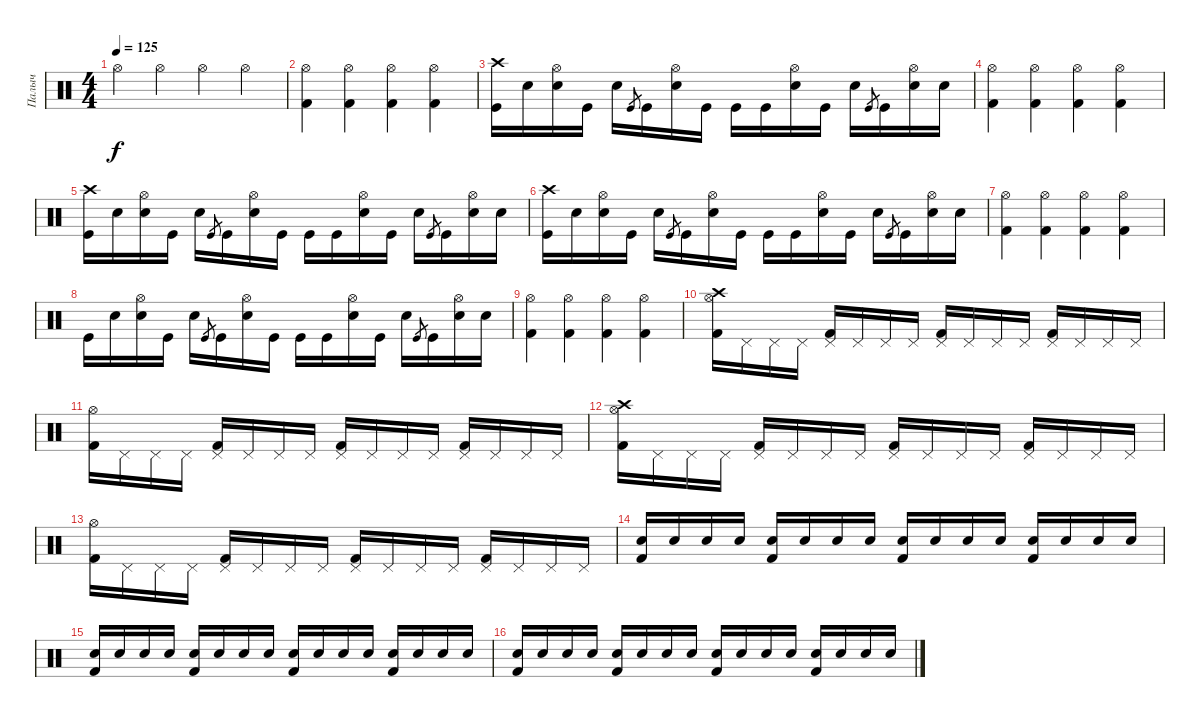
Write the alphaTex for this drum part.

\track ("Палыч" "Палыч") {instrument percussion}
\staff {score}
\articulation defaults
\ts (4 4)
\tempo 125
\clef neutral
\ks c "Hi-Hat (open)".4{dy f} "Hi-Hat (open)".4 "Hi-Hat (open)".4 "Hi-Hat (open)".4
|
("Hi-Hat (open)" "Kick (hit) 2").4 ("Hi-Hat (open)" "Kick (hit) 2").4 ("Hi-Hat (open)" "Kick (hit) 2").4 ("Hi-Hat (open)" "Kick (hit) 2").4 |
("Kick (hit)" "Crash high (hit)").16 "Snare (hit)"{x}.16 ("Snare (hit) 2" "Hi-Hat (open)").16 "Kick (hit)".16 "Electric Snare (hit)"{x}.16 "Kick (hit)".8{gr} "Kick (hit)".16 ("Snare (hit) 2" "Hi-Hat (open)").16 "Kick (hit)"{x}.16 "Kick (hit)".16 "Kick (hit)"{x}.16 ("Snare (hit) 2" "Hi-Hat (open)").16 "Kick (hit)".16 "Snare (hit)"{x}.16 "Kick (hit)".8{gr} "Kick (hit)".16 ("Snare (hit) 2" "Hi-Hat (open)").16 "Snare (hit)"{x}.16 |
("Hi-Hat (open)" "Kick (hit) 2").4 ("Hi-Hat (open)" "Kick (hit) 2").4 ("Hi-Hat (open)" "Kick (hit) 2").4 ("Hi-Hat (open)" "Kick (hit) 2").4 |
("Kick (hit)" "Crash high (hit)").16 "Snare (hit)"{x}.16 ("Snare (hit) 2" "Hi-Hat (open)").16 "Kick (hit)".16 "Electric Snare (hit)"{x}.16 "Kick (hit)".8{gr} "Kick (hit)".16 ("Snare (hit) 2" "Hi-Hat (open)").16 "Kick (hit)"{x}.16 "Kick (hit)".16 "Kick (hit)"{x}.16 ("Snare (hit) 2" "Hi-Hat (open)").16 "Kick (hit)".16 "Snare (hit)"{x}.16 "Kick (hit)".8{gr} "Kick (hit)".16 ("Snare (hit) 2" "Hi-Hat (open)").16 "Snare (hit)"{x}.16 |
("Kick (hit)" "Crash high (hit)").16 "Snare (hit)"{x}.16 ("Snare (hit) 2" "Hi-Hat (open)").16 "Kick (hit)".16 "Electric Snare (hit)"{x}.16 "Kick (hit)".8{gr} "Kick (hit)".16 ("Snare (hit) 2" "Hi-Hat (open)").16 "Kick (hit)"{x}.16 "Kick (hit)".16 "Kick (hit)"{x}.16 ("Snare (hit) 2" "Hi-Hat (open)").16 "Kick (hit)".16 "Snare (hit)"{x}.16 "Kick (hit)".8{gr} "Kick (hit)".16 ("Snare (hit) 2" "Hi-Hat (open)").16 "Snare (hit)"{x}.16 |
("Hi-Hat (open)" "Kick (hit) 2").4 ("Hi-Hat (open)" "Kick (hit) 2").4 ("Hi-Hat (open)" "Kick (hit) 2").4 ("Hi-Hat (open)" "Kick (hit) 2").4 |
"Kick (hit)".16 "Snare (hit)"{x}.16 ("Snare (hit) 2" "Hi-Hat (open)").16 "Kick (hit)".16 "Electric Snare (hit)"{x}.16 "Kick (hit)".8{gr} "Kick (hit)".16 ("Snare (hit) 2" "Hi-Hat (open)").16 "Kick (hit)"{x}.16 "Kick (hit)".16 "Kick (hit)"{x}.16 ("Snare (hit) 2" "Hi-Hat (open)").16 "Kick (hit)".16 "Snare (hit)"{x}.16 "Kick (hit)".8{gr} "Kick (hit)".16 ("Snare (hit) 2" "Hi-Hat (open)").16 "Snare (hit)"{x}.16 |
("Hi-Hat (open)" "Kick (hit) 2").4 ("Hi-Hat (open)" "Kick (hit) 2").4 ("Hi-Hat (open)" "Kick (hit) 2").4 ("Hi-Hat (open)" "Kick (hit) 2").4 |
("Kick (hit) 2" "Hi-Hat (open)" "Crash high (hit)").16 "Pedal Hi-Hat (hit)".16 "Pedal Hi-Hat (hit)".16 "Pedal Hi-Hat (hit)".16 ("Kick (hit) 2" "Pedal Hi-Hat (hit)").16 "Pedal Hi-Hat (hit)".16 "Pedal Hi-Hat (hit)".16 "Pedal Hi-Hat (hit)".16 ("Kick (hit) 2" "Pedal Hi-Hat (hit)").16 "Pedal Hi-Hat (hit)".16 "Pedal Hi-Hat (hit)".16 "Pedal Hi-Hat (hit)".16 ("Kick (hit) 2" "Pedal Hi-Hat (hit)").16 "Pedal Hi-Hat (hit)".16 "Pedal Hi-Hat (hit)".16 "Pedal Hi-Hat (hit)".16 |
("Kick (hit) 2" "Hi-Hat (open)").16 "Pedal Hi-Hat (hit)".16 "Pedal Hi-Hat (hit)".16 "Pedal Hi-Hat (hit)".16 ("Kick (hit) 2" "Pedal Hi-Hat (hit)").16 "Pedal Hi-Hat (hit)".16 "Pedal Hi-Hat (hit)".16 "Pedal Hi-Hat (hit)".16 ("Kick (hit) 2" "Pedal Hi-Hat (hit)").16 "Pedal Hi-Hat (hit)".16 "Pedal Hi-Hat (hit)".16 "Pedal Hi-Hat (hit)".16 ("Kick (hit) 2" "Pedal Hi-Hat (hit)").16 "Pedal Hi-Hat (hit)".16 "Pedal Hi-Hat (hit)".16 "Pedal Hi-Hat (hit)".16 |
("Kick (hit) 2" "Hi-Hat (open)" "Crash high (hit)").16 "Pedal Hi-Hat (hit)".16 "Pedal Hi-Hat (hit)".16 "Pedal Hi-Hat (hit)".16 ("Kick (hit) 2" "Pedal Hi-Hat (hit)").16 "Pedal Hi-Hat (hit)".16 "Pedal Hi-Hat (hit)".16 "Pedal Hi-Hat (hit)".16 ("Kick (hit) 2" "Pedal Hi-Hat (hit)").16 "Pedal Hi-Hat (hit)".16 "Pedal Hi-Hat (hit)".16 "Pedal Hi-Hat (hit)".16 ("Kick (hit) 2" "Pedal Hi-Hat (hit)").16 "Pedal Hi-Hat (hit)".16 "Pedal Hi-Hat (hit)".16 "Pedal Hi-Hat (hit)".16 |
("Kick (hit) 2" "Hi-Hat (open)").16 "Pedal Hi-Hat (hit)".16 "Pedal Hi-Hat (hit)".16 "Pedal Hi-Hat (hit)".16 ("Kick (hit) 2" "Pedal Hi-Hat (hit)").16 "Pedal Hi-Hat (hit)".16 "Pedal Hi-Hat (hit)".16 "Pedal Hi-Hat (hit)".16 ("Kick (hit) 2" "Pedal Hi-Hat (hit)").16 "Pedal Hi-Hat (hit)".16 "Pedal Hi-Hat (hit)".16 "Pedal Hi-Hat (hit)".16 ("Kick (hit) 2" "Pedal Hi-Hat (hit)").16 "Pedal Hi-Hat (hit)".16 "Pedal Hi-Hat (hit)".16 "Pedal Hi-Hat (hit)".16 |
("Kick (hit) 2" "Electric Snare (hit)").16 "Electric Snare (hit)".16 "Electric Snare (hit)".16 "Electric Snare (hit)".16 ("Kick (hit) 2" "Electric Snare (hit)").16 "Electric Snare (hit)".16 "Electric Snare (hit)".16 "Electric Snare (hit)".16 ("Kick (hit) 2" "Electric Snare (hit)").16 "Electric Snare (hit)".16 "Electric Snare (hit)".16 "Electric Snare (hit)".16 ("Kick (hit) 2" "Electric Snare (hit)").16 "Electric Snare (hit)".16 "Electric Snare (hit)".16 "Electric Snare (hit)".16 |
("Kick (hit) 2" "Electric Snare (hit)").16 "Electric Snare (hit)".16 "Electric Snare (hit)".16 "Electric Snare (hit)".16 ("Kick (hit) 2" "Electric Snare (hit)").16 "Electric Snare (hit)".16 "Electric Snare (hit)".16 "Electric Snare (hit)".16 ("Kick (hit) 2" "Electric Snare (hit)").16 "Electric Snare (hit)".16 "Electric Snare (hit)".16 "Electric Snare (hit)".16 ("Kick (hit) 2" "Electric Snare (hit)").16 "Electric Snare (hit)".16 "Electric Snare (hit)".16 "Electric Snare (hit)".16 |
("Kick (hit) 2" "Electric Snare (hit)").16 "Electric Snare (hit)".16 "Electric Snare (hit)".16 "Electric Snare (hit)".16 ("Kick (hit) 2" "Electric Snare (hit)").16 "Electric Snare (hit)".16 "Electric Snare (hit)".16 "Electric Snare (hit)".16 ("Kick (hit) 2" "Electric Snare (hit)").16 "Electric Snare (hit)".16 "Electric Snare (hit)".16 "Electric Snare (hit)".16 ("Kick (hit) 2" "Electric Snare (hit)").16 "Electric Snare (hit)".16 "Electric Snare (hit)".16 "Electric Snare (hit)".16
